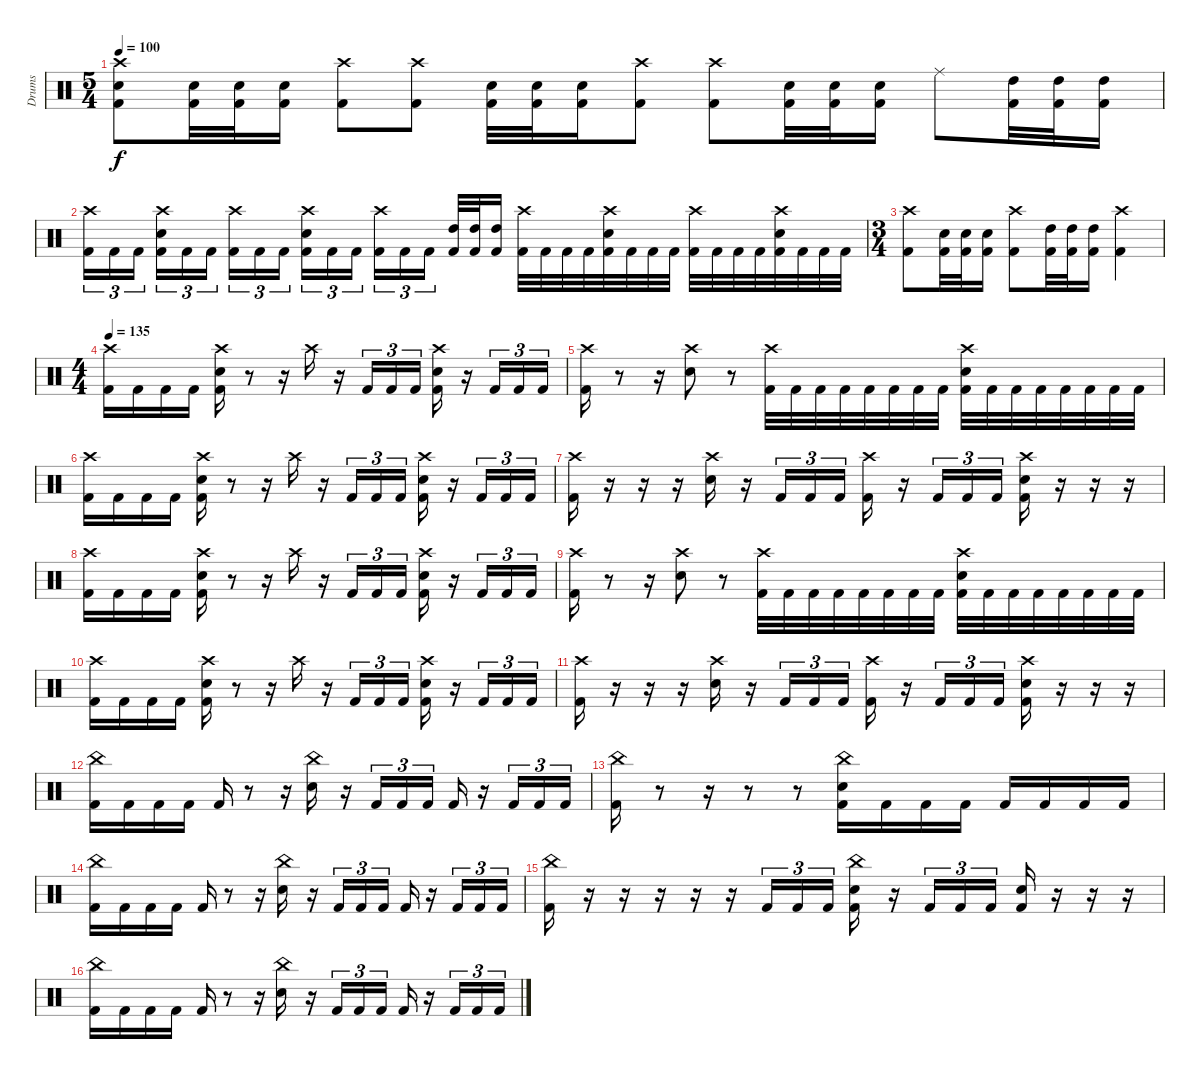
\track ("Drums" "Drums") {instrument percussion}
\staff {score}
\articulation defaults
\ts (5 4)
\tempo 100
\clef neutral
\ks c
("Crash high (hit)" "Electric Snare (hit)" "Kick (hit) 2").8{dy f} ("Electric Snare (hit)" "Kick (hit) 2").32 ("Electric Snare (hit)" "Kick (hit) 2").32 ("Electric Snare (hit)" "Kick (hit) 2").16 ("Crash high (hit)" "Kick (hit) 2").8 ("Crash high (hit)" "Kick (hit) 2").8 ("Electric Snare (hit)" "Kick (hit) 2").32 ("Electric Snare (hit)" "Kick (hit) 2").32 ("Electric Snare (hit)" "Kick (hit) 2").16 ("Crash high (hit)" "Kick (hit) 2").8 ("Crash high (hit)" "Kick (hit) 2").8 ("Electric Snare (hit)" "Kick (hit) 2").32 ("Electric Snare (hit)" "Kick (hit) 2").32 ("Electric Snare (hit)" "Kick (hit) 2").16 "Ride (middle)".8 ("High Tom (hit)" "Kick (hit) 2").32 ("High Tom (hit)" "Kick (hit) 2").32 ("High Tom (hit)" "Kick (hit) 2").16 |
("Crash high (hit)" "Kick (hit) 2").16{tu (3 2)} "Kick (hit) 2".16{tu (3 2)} "Kick (hit) 2".16{tu (3 2) beam splitsecondary} ("Crash high (hit)" "Electric Snare (hit)" "Kick (hit) 2").16{tu (3 2)} "Kick (hit) 2".16{tu (3 2)} "Kick (hit) 2".16{tu (3 2)} ("Crash high (hit)" "Kick (hit) 2").16{tu (3 2)} "Kick (hit) 2".16{tu (3 2)} "Kick (hit) 2".16{tu (3 2) beam splitsecondary} ("Crash high (hit)" "Electric Snare (hit)" "Kick (hit) 2").16{tu (3 2)} "Kick (hit) 2".16{tu (3 2)} "Kick (hit) 2".16{tu (3 2)} ("Crash high (hit)" "Kick (hit) 2").16{tu (3 2)} "Kick (hit) 2".16{tu (3 2)} "Kick (hit) 2".16{tu (3 2) beam splitsecondary} ("High Tom (hit)" "Kick (hit) 2").32 ("High Tom (hit)" "Kick (hit) 2").32 ("High Tom (hit)" "Kick (hit) 2").16 ("Crash high (hit)" "Kick (hit) 2").32 "Kick (hit) 2".32 "Kick (hit) 2".32 "Kick (hit) 2".32 ("Crash high (hit)" "Electric Snare (hit)" "Kick (hit) 2").32 "Kick (hit) 2".32 "Kick (hit) 2".32 "Kick (hit) 2".32 ("Crash high (hit)" "Kick (hit) 2").32 "Kick (hit) 2".32 "Kick (hit) 2".32 "Kick (hit) 2".32 ("Crash high (hit)" "Electric Snare (hit)" "Kick (hit) 2").32 "Kick (hit) 2".32 "Kick (hit) 2".32 "Kick (hit) 2".32 |
\ts (3 4)
("Crash high (hit)" "Kick (hit) 2").8 ("Electric Snare (hit)" "Kick (hit) 2").32 ("Electric Snare (hit)" "Kick (hit) 2").32 ("Electric Snare (hit)" "Kick (hit) 2").16 ("Crash high (hit)" "Kick (hit) 2").8 ("High Tom (hit)" "Kick (hit) 2").32 ("High Tom (hit)" "Kick (hit) 2").32 ("High Tom (hit)" "Kick (hit) 2").16 ("Crash high (hit)" "Kick (hit) 2").4 |
\ts (4 4)
\tempo 135
("Crash high (hit)" "Kick (hit) 2").16 "Kick (hit) 2".16 "Kick (hit) 2".16 "Kick (hit) 2".16 ("Crash high (hit)" "Electric Snare (hit)" "Kick (hit) 2").16 r.8 r.16 "Crash high (hit)".16 r.16 "Kick (hit) 2".16{tu (3 2)} "Kick (hit) 2".16{tu (3 2)} "Kick (hit) 2".16{tu (3 2)} ("Crash high (hit)" "Electric Snare (hit)" "Kick (hit) 2").16 r.16 "Kick (hit) 2".16{tu (3 2)} "Kick (hit) 2".16{tu (3 2)} "Kick (hit) 2".16{tu (3 2)} |
("Crash high (hit)" "Kick (hit) 2").16 r.8 r.16 ("Crash high (hit)" "Electric Snare (hit)").8 r.8 ("Crash high (hit)" "Kick (hit) 2").32 "Kick (hit) 2".32 "Kick (hit) 2".32 "Kick (hit) 2".32 "Kick (hit) 2".32 "Kick (hit) 2".32 "Kick (hit) 2".32 "Kick (hit) 2".32 ("Crash high (hit)" "Electric Snare (hit)" "Kick (hit) 2").32 "Kick (hit) 2".32 "Kick (hit) 2".32 "Kick (hit) 2".32 "Kick (hit) 2".32 "Kick (hit) 2".32 "Kick (hit) 2".32 "Kick (hit) 2".32 |
("Crash high (hit)" "Kick (hit) 2").16 "Kick (hit) 2".16 "Kick (hit) 2".16 "Kick (hit) 2".16 ("Crash high (hit)" "Electric Snare (hit)" "Kick (hit) 2").16 r.8 r.16 "Crash high (hit)".16 r.16 "Kick (hit) 2".16{tu (3 2)} "Kick (hit) 2".16{tu (3 2)} "Kick (hit) 2".16{tu (3 2)} ("Crash high (hit)" "Electric Snare (hit)" "Kick (hit) 2").16 r.16 "Kick (hit) 2".16{tu (3 2)} "Kick (hit) 2".16{tu (3 2)} "Kick (hit) 2".16{tu (3 2)} |
("Crash high (hit)" "Kick (hit) 2").16 r.16 r.16 r.16 ("Crash high (hit)" "Electric Snare (hit)").16 r.16 "Kick (hit) 2".16{tu (3 2)} "Kick (hit) 2".16{tu (3 2)} "Kick (hit) 2".16{tu (3 2)} ("Crash high (hit)" "Kick (hit) 2").16 r.16 "Kick (hit) 2".16{tu (3 2)} "Kick (hit) 2".16{tu (3 2)} "Kick (hit) 2".16{tu (3 2)} ("Crash high (hit)" "Electric Snare (hit)" "Kick (hit) 2").16 r.16 r.16 r.16 |
("Crash high (hit)" "Kick (hit) 2").16 "Kick (hit) 2".16 "Kick (hit) 2".16 "Kick (hit) 2".16 ("Crash high (hit)" "Electric Snare (hit)" "Kick (hit) 2").16 r.8 r.16 "Crash high (hit)".16 r.16 "Kick (hit) 2".16{tu (3 2)} "Kick (hit) 2".16{tu (3 2)} "Kick (hit) 2".16{tu (3 2)} ("Crash high (hit)" "Electric Snare (hit)" "Kick (hit) 2").16 r.16 "Kick (hit) 2".16{tu (3 2)} "Kick (hit) 2".16{tu (3 2)} "Kick (hit) 2".16{tu (3 2)} |
("Crash high (hit)" "Kick (hit) 2").16 r.8 r.16 ("Crash high (hit)" "Electric Snare (hit)").8 r.8 ("Crash high (hit)" "Kick (hit) 2").32 "Kick (hit) 2".32 "Kick (hit) 2".32 "Kick (hit) 2".32 "Kick (hit) 2".32 "Kick (hit) 2".32 "Kick (hit) 2".32 "Kick (hit) 2".32 ("Crash high (hit)" "Electric Snare (hit)" "Kick (hit) 2").32 "Kick (hit) 2".32 "Kick (hit) 2".32 "Kick (hit) 2".32 "Kick (hit) 2".32 "Kick (hit) 2".32 "Kick (hit) 2".32 "Kick (hit) 2".32 |
("Crash high (hit)" "Kick (hit) 2").16 "Kick (hit) 2".16 "Kick (hit) 2".16 "Kick (hit) 2".16 ("Crash high (hit)" "Electric Snare (hit)" "Kick (hit) 2").16 r.8 r.16 "Crash high (hit)".16 r.16 "Kick (hit) 2".16{tu (3 2)} "Kick (hit) 2".16{tu (3 2)} "Kick (hit) 2".16{tu (3 2)} ("Crash high (hit)" "Electric Snare (hit)" "Kick (hit) 2").16 r.16 "Kick (hit) 2".16{tu (3 2)} "Kick (hit) 2".16{tu (3 2)} "Kick (hit) 2".16{tu (3 2)} |
("Crash high (hit)" "Kick (hit) 2").16 r.16 r.16 r.16 ("Crash high (hit)" "Electric Snare (hit)").16 r.16 "Kick (hit) 2".16{tu (3 2)} "Kick (hit) 2".16{tu (3 2)} "Kick (hit) 2".16{tu (3 2)} ("Crash high (hit)" "Kick (hit) 2").16 r.16 "Kick (hit) 2".16{tu (3 2)} "Kick (hit) 2".16{tu (3 2)} "Kick (hit) 2".16{tu (3 2)} ("Crash high (hit)" "Electric Snare (hit)" "Kick (hit) 2").16 r.16 r.16 r.16 |
("China (hit)" "Kick (hit) 2").16 "Kick (hit) 2".16 "Kick (hit) 2".16 "Kick (hit) 2".16 "Kick (hit) 2".16 r.8 r.16 ("China (hit)" "Electric Snare (hit)").16 r.16 "Kick (hit) 2".16{tu (3 2)} "Kick (hit) 2".16{tu (3 2)} "Kick (hit) 2".16{tu (3 2)} "Kick (hit) 2".16 r.16 "Kick (hit) 2".16{tu (3 2)} "Kick (hit) 2".16{tu (3 2)} "Kick (hit) 2".16{tu (3 2)} |
("China (hit)" "Kick (hit) 2").16 r.8 r.16 r.8 r.8 ("China (hit)" "Electric Snare (hit)" "Kick (hit) 2").16 "Kick (hit) 2".16 "Kick (hit) 2".16 "Kick (hit) 2".16 "Kick (hit) 2".16 "Kick (hit) 2".16 "Kick (hit) 2".16 "Kick (hit) 2".16 |
("China (hit)" "Kick (hit) 2").16 "Kick (hit) 2".16 "Kick (hit) 2".16 "Kick (hit) 2".16 "Kick (hit) 2".16 r.8 r.16 ("China (hit)" "Electric Snare (hit)").16 r.16 "Kick (hit) 2".16{tu (3 2)} "Kick (hit) 2".16{tu (3 2)} "Kick (hit) 2".16{tu (3 2)} "Kick (hit) 2".16 r.16 "Kick (hit) 2".16{tu (3 2)} "Kick (hit) 2".16{tu (3 2)} "Kick (hit) 2".16{tu (3 2)} |
("China (hit)" "Kick (hit) 2").16 r.16 r.16 r.16 r.16 r.16 "Kick (hit) 2".16{tu (3 2)} "Kick (hit) 2".16{tu (3 2)} "Kick (hit) 2".16{tu (3 2)} ("China (hit)" "Electric Snare (hit)" "Kick (hit) 2").16 r.16 "Kick (hit) 2".16{tu (3 2)} "Kick (hit) 2".16{tu (3 2)} "Kick (hit) 2".16{tu (3 2)} ("Electric Snare (hit)" "Kick (hit) 2").16 r.16 r.16 r.16 |
("China (hit)" "Kick (hit) 2").16 "Kick (hit) 2".16 "Kick (hit) 2".16 "Kick (hit) 2".16 "Kick (hit) 2".16 r.8 r.16 ("China (hit)" "Electric Snare (hit)").16 r.16 "Kick (hit) 2".16{tu (3 2)} "Kick (hit) 2".16{tu (3 2)} "Kick (hit) 2".16{tu (3 2)} "Kick (hit) 2".16 r.16 "Kick (hit) 2".16{tu (3 2)} "Kick (hit) 2".16{tu (3 2)} "Kick (hit) 2".16{tu (3 2)}
